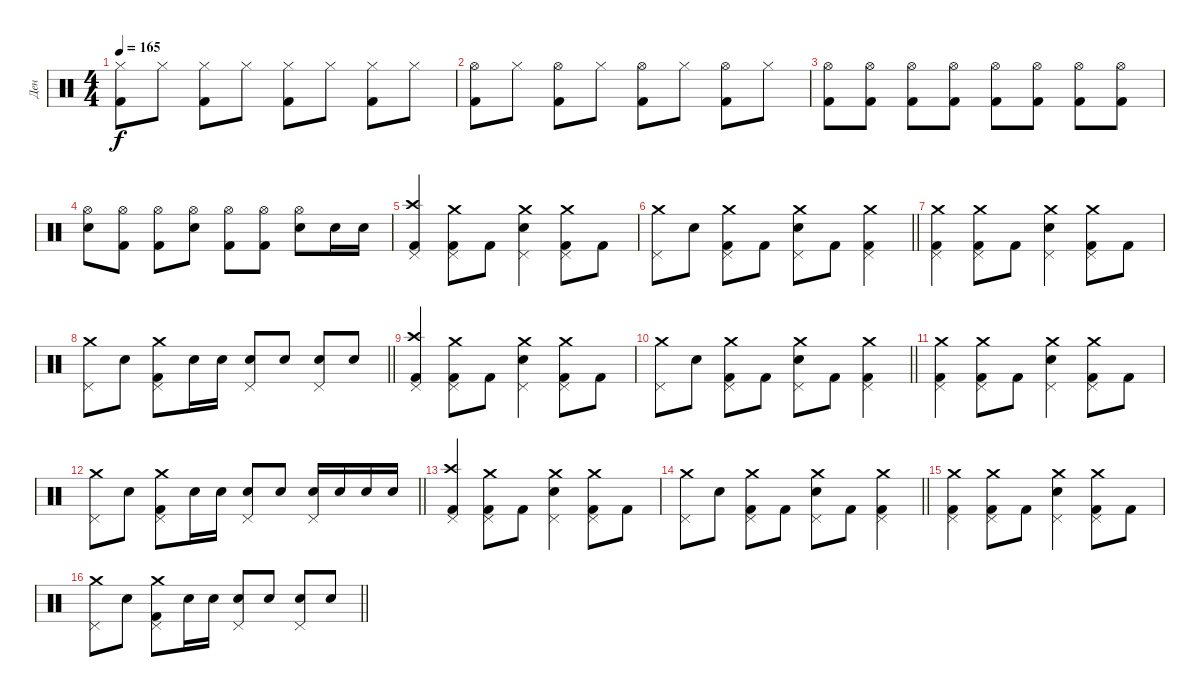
\track ("Ден" "Ден") {instrument percussion}
\staff {score}
\articulation defaults
\ts (4 4)
\tempo 165
\clef neutral
\ks c
("Hi-Hat (closed)" "Kick (hit) 2").8{dy f} "Hi-Hat (closed)".8 ("Hi-Hat (closed)" "Kick (hit) 2").8 "Hi-Hat (closed)".8 ("Hi-Hat (closed)" "Kick (hit) 2").8 "Hi-Hat (closed)".8 ("Hi-Hat (closed)" "Kick (hit) 2").8 "Hi-Hat (closed)".8 |
("Hi-Hat (open)" "Kick (hit) 2").8 "Hi-Hat (closed)".8 ("Hi-Hat (open)" "Kick (hit) 2").8 "Hi-Hat (closed)".8 ("Hi-Hat (open)" "Kick (hit) 2").8 "Hi-Hat (closed)".8 ("Hi-Hat (open)" "Kick (hit) 2").8 "Hi-Hat (closed)".8 |
("Hi-Hat (open)" "Kick (hit) 2").8 ("Hi-Hat (open)" "Kick (hit) 2").8 ("Hi-Hat (open)" "Kick (hit) 2").8 ("Hi-Hat (open)" "Kick (hit) 2").8 ("Hi-Hat (open)" "Kick (hit) 2").8 ("Hi-Hat (open)" "Kick (hit) 2").8 ("Hi-Hat (open)" "Kick (hit) 2").8 ("Hi-Hat (open)" "Kick (hit) 2").8 |
("Hi-Hat (open)" "Snare (hit) 2").8 ("Hi-Hat (open)" "Kick (hit) 2").8 ("Hi-Hat (open)" "Kick (hit) 2").8 ("Hi-Hat (open)" "Snare (hit) 2").8 ("Hi-Hat (open)" "Kick (hit) 2").8 ("Hi-Hat (open)" "Kick (hit) 2").8 ("Hi-Hat (open)" "Snare (hit) 2").8 "Snare (hit) 2".16 "Snare (hit) 2".16 |
("Crash high (hit)" "Kick (hit) 2" "Pedal Hi-Hat (hit)").4 ("Crash medium (hit)" "Kick (hit) 2" "Pedal Hi-Hat (hit)").8 "Kick (hit) 2".8 ("Crash medium (hit)" "Snare (hit) 2" "Pedal Hi-Hat (hit)").4 ("Crash medium (hit)" "Kick (hit) 2" "Pedal Hi-Hat (hit)").8 "Kick (hit) 2".8 |
\barLineRight lightlight
("Crash medium (hit)" "Pedal Hi-Hat (hit)").8 "Snare (hit) 2".8 ("Crash medium (hit)" "Kick (hit) 2" "Pedal Hi-Hat (hit)").8 "Kick (hit) 2".8 ("Crash medium (hit)" "Snare (hit) 2" "Pedal Hi-Hat (hit)").8 "Kick (hit) 2".8 ("Crash medium (hit)" "Kick (hit) 2" "Pedal Hi-Hat (hit)").4 |
("Crash medium (hit)" "Kick (hit) 2" "Pedal Hi-Hat (hit)").4 ("Crash medium (hit)" "Kick (hit) 2" "Pedal Hi-Hat (hit)").8 "Kick (hit) 2".8 ("Crash medium (hit)" "Snare (hit) 2" "Pedal Hi-Hat (hit)").4 ("Crash medium (hit)" "Kick (hit) 2" "Pedal Hi-Hat (hit)").8 "Kick (hit) 2".8 |
\barLineRight lightlight
("Crash medium (hit)" "Pedal Hi-Hat (hit)").8 "Snare (hit) 2".8 ("Crash medium (hit)" "Kick (hit) 2" "Pedal Hi-Hat (hit)").8 "Snare (hit) 2".16 "Snare (hit) 2".16 ("Snare (hit) 2" "Pedal Hi-Hat (hit)").8 "Snare (hit) 2".8 ("Snare (hit) 2" "Pedal Hi-Hat (hit)").8 "Snare (hit) 2".8 |
("Crash high (hit)" "Kick (hit) 2" "Pedal Hi-Hat (hit)").4 ("Crash medium (hit)" "Kick (hit) 2" "Pedal Hi-Hat (hit)").8 "Kick (hit) 2".8 ("Crash medium (hit)" "Snare (hit) 2" "Pedal Hi-Hat (hit)").4 ("Crash medium (hit)" "Kick (hit) 2" "Pedal Hi-Hat (hit)").8 "Kick (hit) 2".8 |
\barLineRight lightlight
("Crash medium (hit)" "Pedal Hi-Hat (hit)").8 "Snare (hit) 2".8 ("Crash medium (hit)" "Kick (hit) 2" "Pedal Hi-Hat (hit)").8 "Kick (hit) 2".8 ("Crash medium (hit)" "Snare (hit) 2" "Pedal Hi-Hat (hit)").8 "Kick (hit) 2".8 ("Crash medium (hit)" "Kick (hit) 2" "Pedal Hi-Hat (hit)").4 |
("Crash medium (hit)" "Kick (hit) 2" "Pedal Hi-Hat (hit)").4 ("Crash medium (hit)" "Kick (hit) 2" "Pedal Hi-Hat (hit)").8 "Kick (hit) 2".8 ("Crash medium (hit)" "Snare (hit) 2" "Pedal Hi-Hat (hit)").4 ("Crash medium (hit)" "Kick (hit) 2" "Pedal Hi-Hat (hit)").8 "Kick (hit) 2".8 |
\barLineRight lightlight
("Crash medium (hit)" "Pedal Hi-Hat (hit)").8 "Snare (hit) 2".8 ("Crash medium (hit)" "Kick (hit) 2" "Pedal Hi-Hat (hit)").8 "Snare (hit) 2".16 "Snare (hit) 2".16 ("Snare (hit) 2" "Pedal Hi-Hat (hit)").8 "Snare (hit) 2".8 ("Snare (hit) 2" "Pedal Hi-Hat (hit)").16 "Snare (hit) 2".16 "Snare (hit) 2".16 "Snare (hit) 2".16 |
("Crash high (hit)" "Kick (hit) 2" "Pedal Hi-Hat (hit)").4 ("Crash medium (hit)" "Kick (hit) 2" "Pedal Hi-Hat (hit)").8 "Kick (hit) 2".8 ("Crash medium (hit)" "Snare (hit) 2" "Pedal Hi-Hat (hit)").4 ("Crash medium (hit)" "Kick (hit) 2" "Pedal Hi-Hat (hit)").8 "Kick (hit) 2".8 |
\barLineRight lightlight
("Crash medium (hit)" "Pedal Hi-Hat (hit)").8 "Snare (hit) 2".8 ("Crash medium (hit)" "Kick (hit) 2" "Pedal Hi-Hat (hit)").8 "Kick (hit) 2".8 ("Crash medium (hit)" "Snare (hit) 2" "Pedal Hi-Hat (hit)").8 "Kick (hit) 2".8 ("Crash medium (hit)" "Kick (hit) 2" "Pedal Hi-Hat (hit)").4 |
("Crash medium (hit)" "Kick (hit) 2" "Pedal Hi-Hat (hit)").4 ("Crash medium (hit)" "Kick (hit) 2" "Pedal Hi-Hat (hit)").8 "Kick (hit) 2".8 ("Crash medium (hit)" "Snare (hit) 2" "Pedal Hi-Hat (hit)").4 ("Crash medium (hit)" "Kick (hit) 2" "Pedal Hi-Hat (hit)").8 "Kick (hit) 2".8 |
\barLineRight lightlight
("Crash medium (hit)" "Pedal Hi-Hat (hit)").8 "Snare (hit) 2".8 ("Crash medium (hit)" "Kick (hit) 2" "Pedal Hi-Hat (hit)").8 "Snare (hit) 2".16 "Snare (hit) 2".16 ("Snare (hit) 2" "Pedal Hi-Hat (hit)").8 "Snare (hit) 2".8 ("Snare (hit) 2" "Pedal Hi-Hat (hit)").8 "Snare (hit) 2".8
